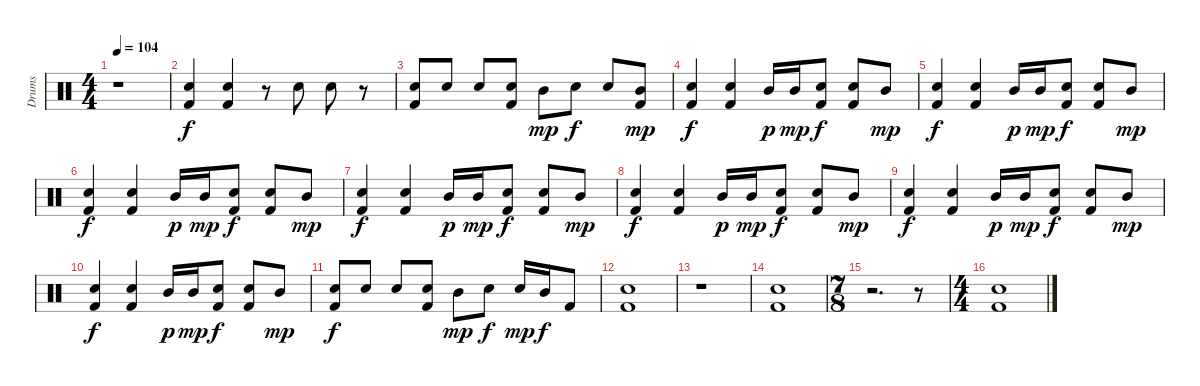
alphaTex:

\track ("Drums" "Drums") {instrument percussion}
\staff {score}
\articulation defaults
\ts (4 4)
\tempo 104
\clef neutral
\ks c
r.1{dy f} |
("Snare (hit) 2" "Kick (hit) 2").4 ("Snare (hit) 2" "Kick (hit) 2").4 r.8 "Snare (hit) 2".8 "Snare (hit) 2".8 r.8 |
("Snare (hit) 2" "Kick (hit) 2").8 "Snare (hit) 2".8 "Snare (hit) 2".8 ("Snare (hit) 2" "Kick (hit) 2").8 "Mid Tom (hit)".8{dy mp} "Snare (hit) 2".8{dy f} "Snare (hit) 2".8 ("Mid Tom (hit)" "Kick (hit) 2").8{dy mp} |
("Snare (hit) 2" "Kick (hit) 2").4{dy f} ("Snare (hit) 2" "Kick (hit) 2").4 "Mid Tom (hit)".16{dy p} "Mid Tom (hit)".16{dy mp} ("Snare (hit) 2" "Kick (hit) 2").8{dy f} ("Snare (hit) 2" "Kick (hit) 2").8 "Mid Tom (hit)".8{dy mp} |
("Snare (hit) 2" "Kick (hit) 2").4{dy f} ("Snare (hit) 2" "Kick (hit) 2").4 "Mid Tom (hit)".16{dy p} "Mid Tom (hit)".16{dy mp} ("Snare (hit) 2" "Kick (hit) 2").8{dy f} ("Snare (hit) 2" "Kick (hit) 2").8 "Mid Tom (hit)".8{dy mp} |
("Snare (hit) 2" "Kick (hit) 2").4{dy f} ("Snare (hit) 2" "Kick (hit) 2").4 "Mid Tom (hit)".16{dy p} "Mid Tom (hit)".16{dy mp} ("Snare (hit) 2" "Kick (hit) 2").8{dy f} ("Snare (hit) 2" "Kick (hit) 2").8 "Mid Tom (hit)".8{dy mp} |
("Snare (hit) 2" "Kick (hit) 2").4{dy f} ("Snare (hit) 2" "Kick (hit) 2").4 "Mid Tom (hit)".16{dy p} "Mid Tom (hit)".16{dy mp} ("Snare (hit) 2" "Kick (hit) 2").8{dy f} ("Snare (hit) 2" "Kick (hit) 2").8 "Mid Tom (hit)".8{dy mp} |
("Snare (hit) 2" "Kick (hit) 2").4{dy f} ("Snare (hit) 2" "Kick (hit) 2").4 "Mid Tom (hit)".16{dy p} "Mid Tom (hit)".16{dy mp} ("Snare (hit) 2" "Kick (hit) 2").8{dy f} ("Snare (hit) 2" "Kick (hit) 2").8 "Mid Tom (hit)".8{dy mp} |
("Snare (hit) 2" "Kick (hit) 2").4{dy f} ("Snare (hit) 2" "Kick (hit) 2").4 "Mid Tom (hit)".16{dy p} "Mid Tom (hit)".16{dy mp} ("Snare (hit) 2" "Kick (hit) 2").8{dy f} ("Snare (hit) 2" "Kick (hit) 2").8 "Mid Tom (hit)".8{dy mp} |
("Snare (hit) 2" "Kick (hit) 2").4{dy f} ("Snare (hit) 2" "Kick (hit) 2").4 "Mid Tom (hit)".16{dy p} "Mid Tom (hit)".16{dy mp} ("Snare (hit) 2" "Kick (hit) 2").8{dy f} ("Snare (hit) 2" "Kick (hit) 2").8 "Mid Tom (hit)".8{dy mp} |
("Snare (hit) 2" "Kick (hit) 2").8{dy f} "Snare (hit) 2".8 "Snare (hit) 2".8 ("Snare (hit) 2" "Kick (hit) 2").8 "Mid Tom (hit)".8{dy mp} "Snare (hit) 2".8{dy f} "Snare (hit) 2".16{dy mp} "Mid Tom (hit)".16{dy f} "Kick (hit) 2".8 |
("Snare (hit) 2" "Kick (hit) 2").1 |
r.1 |
("Snare (hit) 2" "Kick (hit) 2").1 |
\ts (7 8)
r.2{d} r.8 |
\ts (4 4)
("Snare (hit) 2" "Kick (hit) 2").1
